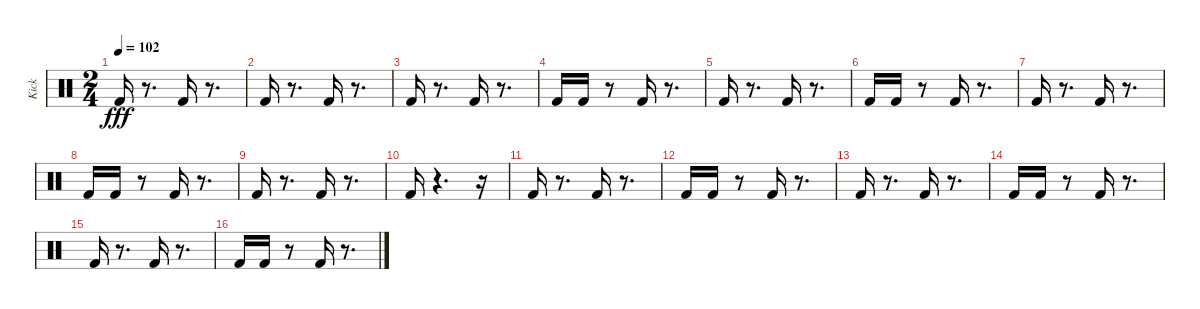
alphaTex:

\track ("Kick" "Kick") {instrument percussion}
\staff {score}
\articulation defaults
\ts (2 4)
\tempo 102
\clef neutral
\ks c "Kick (hit) 2".16{dy fff}
r.8{d} "Kick (hit) 2".16 r.8{d} |
"Kick (hit) 2".16 r.8{d} "Kick (hit) 2".16 r.8{d} |
"Kick (hit) 2".16 r.8{d} "Kick (hit) 2".16 r.8{d} |
"Kick (hit) 2".16 "Kick (hit) 2".16 r.8 "Kick (hit) 2".16 r.8{d} |
"Kick (hit) 2".16 r.8{d} "Kick (hit) 2".16 r.8{d} |
"Kick (hit) 2".16 "Kick (hit) 2".16 r.8 "Kick (hit) 2".16 r.8{d} |
"Kick (hit) 2".16 r.8{d} "Kick (hit) 2".16 r.8{d} |
"Kick (hit) 2".16 "Kick (hit) 2".16 r.8 "Kick (hit) 2".16 r.8{d} |
"Kick (hit) 2".16 r.8{d} "Kick (hit) 2".16 r.8{d} |
"Kick (hit) 2".16 r.4{d} r.16 |
"Kick (hit) 2".16 r.8{d} "Kick (hit) 2".16 r.8{d} |
"Kick (hit) 2".16 "Kick (hit) 2".16 r.8 "Kick (hit) 2".16 r.8{d} |
"Kick (hit) 2".16 r.8{d} "Kick (hit) 2".16 r.8{d} |
"Kick (hit) 2".16 "Kick (hit) 2".16 r.8 "Kick (hit) 2".16 r.8{d} |
"Kick (hit) 2".16 r.8{d} "Kick (hit) 2".16 r.8{d} |
"Kick (hit) 2".16 "Kick (hit) 2".16 r.8 "Kick (hit) 2".16 r.8{d}
